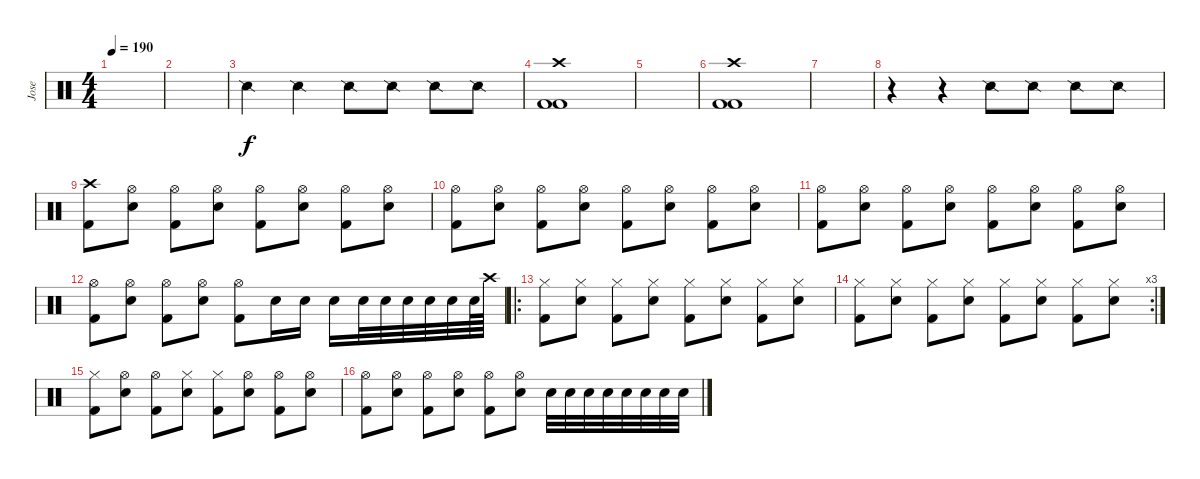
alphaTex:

\track ("Jose" "Jose") {instrument percussion}
\staff {score}
\articulation defaults
\ts (4 4)
\tempo 190
\clef neutral
\ks c
|
|
"Snare (side stick) 2".4 "Snare (side stick) 2".4 "Snare (side stick) 2".8 "Snare (side stick) 2".8 "Snare (side stick) 2".8 "Snare (side stick) 2".8 |
("Crash high (hit)" "Kick (hit) 2" "Kick (hit) 2").1 |
|
("Crash high (hit)" "Kick (hit) 2" "Kick (hit) 2").1 |
|
r.4 r.4 "Snare (side stick) 2".8 "Snare (side stick) 2".8 "Snare (side stick) 2".8 "Snare (side stick) 2".8 |
("Crash high (hit)" "Kick (hit) 2").8 ("Hi-Hat (open)" "Electric Snare (hit)").8 ("Hi-Hat (open)" "Kick (hit) 2").8 ("Hi-Hat (open)" "Electric Snare (hit)").8 ("Hi-Hat (open)" "Kick (hit) 2").8 ("Hi-Hat (open)" "Electric Snare (hit)").8 ("Hi-Hat (open)" "Kick (hit) 2").8 ("Hi-Hat (open)" "Electric Snare (hit)").8 |
("Hi-Hat (open)" "Kick (hit) 2").8 ("Hi-Hat (open)" "Electric Snare (hit)").8 ("Hi-Hat (open)" "Kick (hit) 2").8 ("Hi-Hat (open)" "Electric Snare (hit)").8 ("Hi-Hat (open)" "Kick (hit) 2").8 ("Hi-Hat (open)" "Electric Snare (hit)").8 ("Hi-Hat (open)" "Kick (hit) 2").8 ("Hi-Hat (open)" "Electric Snare (hit)").8 |
("Hi-Hat (open)" "Kick (hit) 2").8 ("Hi-Hat (open)" "Electric Snare (hit)").8 ("Hi-Hat (open)" "Kick (hit) 2").8 ("Hi-Hat (open)" "Electric Snare (hit)").8 ("Hi-Hat (open)" "Kick (hit) 2").8 ("Hi-Hat (open)" "Electric Snare (hit)").8 ("Hi-Hat (open)" "Kick (hit) 2").8 ("Hi-Hat (open)" "Electric Snare (hit)").8 |
("Hi-Hat (open)" "Kick (hit) 2").8 ("Hi-Hat (open)" "Electric Snare (hit)").8 ("Hi-Hat (open)" "Kick (hit) 2").8 ("Hi-Hat (open)" "Electric Snare (hit)").8 ("Hi-Hat (open)" "Kick (hit) 2").8 "Electric Snare (hit)".16 "Electric Snare (hit)".16 "Electric Snare (hit)".16 "Electric Snare (hit)".32 "Electric Snare (hit)".32 "Electric Snare (hit)".32 "Electric Snare (hit)".32 "Electric Snare (hit)".32 "Electric Snare (hit)".64 "Crash high (hit)".64 |
\ro
("Hi-Hat (closed)" "Kick (hit) 2").8 ("Hi-Hat (closed)" "Electric Snare (hit)").8 ("Hi-Hat (closed)" "Kick (hit) 2").8 ("Hi-Hat (closed)" "Electric Snare (hit)").8 ("Hi-Hat (closed)" "Kick (hit) 2").8 ("Hi-Hat (closed)" "Electric Snare (hit)").8 ("Hi-Hat (closed)" "Kick (hit) 2").8 ("Hi-Hat (closed)" "Electric Snare (hit)").8 |
\rc 3
("Hi-Hat (closed)" "Kick (hit) 2").8 ("Hi-Hat (closed)" "Electric Snare (hit)").8 ("Hi-Hat (closed)" "Kick (hit) 2").8 ("Hi-Hat (closed)" "Electric Snare (hit)").8 ("Hi-Hat (closed)" "Kick (hit) 2").8 ("Hi-Hat (closed)" "Electric Snare (hit)").8 ("Hi-Hat (closed)" "Kick (hit) 2").8 ("Hi-Hat (closed)" "Electric Snare (hit)").8 |
("Hi-Hat (closed)" "Kick (hit) 2").8 ("Hi-Hat (open)" "Electric Snare (hit)").8 ("Hi-Hat (open)" "Kick (hit) 2").8 ("Hi-Hat (closed)" "Electric Snare (hit)").8 ("Hi-Hat (closed)" "Kick (hit) 2").8 ("Hi-Hat (open)" "Electric Snare (hit)").8 ("Hi-Hat (open)" "Kick (hit) 2").8 ("Hi-Hat (open)" "Electric Snare (hit)").8 |
("Hi-Hat (open)" "Kick (hit) 2").8 ("Hi-Hat (open)" "Electric Snare (hit)").8 ("Hi-Hat (open)" "Kick (hit) 2").8 ("Hi-Hat (open)" "Electric Snare (hit)").8 ("Hi-Hat (open)" "Kick (hit) 2").8 ("Hi-Hat (open)" "Electric Snare (hit)").8 "Electric Snare (hit)".32 "Electric Snare (hit)".32 "Electric Snare (hit)".32 "Electric Snare (hit)".32 "Electric Snare (hit)".32 "Electric Snare (hit)".32 "Electric Snare (hit)".32 "Electric Snare (hit)".32
